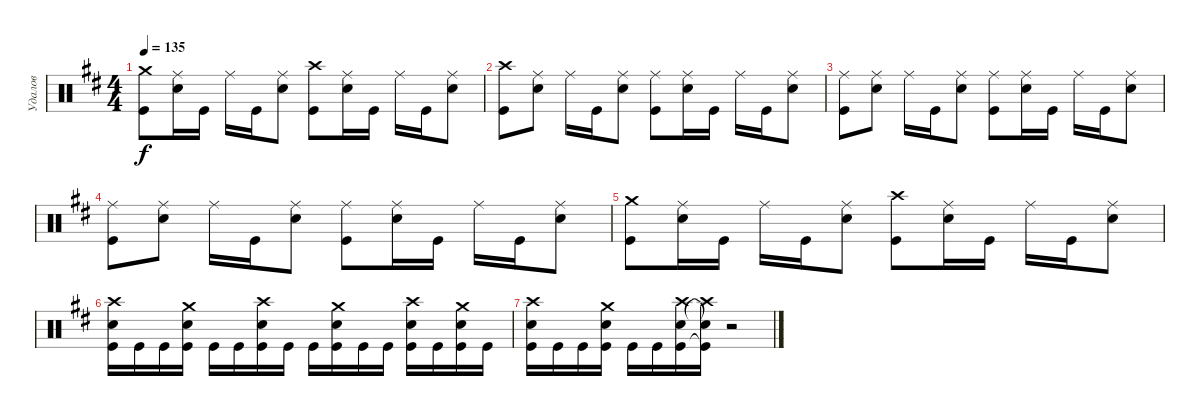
\track ("Удалов" "Удалов") {instrument percussion}
\staff {score}
\articulation defaults
\ts (4 4)
\tempo 135
\clef neutral
\ks d
("Crash medium (hit)" "Kick (hit)").8{dy f} ("Ride (middle)" "Electric Snare (hit)").16 "Kick (hit)".16 "Ride (middle)".16 "Kick (hit)".16 ("Electric Snare (hit)" "Ride (middle)").8 ("Crash high (hit)" "Kick (hit)").8 ("Ride (middle)" "Electric Snare (hit)").16 "Kick (hit)".16 "Ride (middle)".16 "Kick (hit)".16 ("Electric Snare (hit)" "Ride (middle)").8 |
("Kick (hit)" "Crash high (hit)").8 ("Electric Snare (hit)" "Ride (middle)").8 "Ride (middle)".16 "Kick (hit)".16 ("Electric Snare (hit)" "Ride (middle)").8 ("Ride (middle)" "Kick (hit)").8 ("Ride (middle)" "Electric Snare (hit)").16 "Kick (hit)".16 "Ride (middle)".16 "Kick (hit)".16 ("Electric Snare (hit)" "Ride (middle)").8 |
("Kick (hit)" "Ride (middle)").8 ("Electric Snare (hit)" "Ride (middle)").8 "Ride (middle)".16 "Kick (hit)".16 ("Electric Snare (hit)" "Ride (middle)").8 ("Ride (middle)" "Kick (hit)").8 ("Ride (middle)" "Electric Snare (hit)").16 "Kick (hit)".16 "Ride (middle)".16 "Kick (hit)".16 ("Electric Snare (hit)" "Ride (middle)").8 |
("Kick (hit)" "Ride (middle)").8 ("Electric Snare (hit)" "Ride (middle)").8 "Ride (middle)".16 "Kick (hit)".16 ("Electric Snare (hit)" "Ride (middle)").8 ("Ride (middle)" "Kick (hit)").8 ("Ride (middle)" "Electric Snare (hit)").16 "Kick (hit)".16 "Ride (middle)".16 "Kick (hit)".16 ("Electric Snare (hit)" "Ride (middle)").8 |
("Crash medium (hit)" "Kick (hit)").8 ("Ride (middle)" "Electric Snare (hit)").16 "Kick (hit)".16 "Ride (middle)".16 "Kick (hit)".16 ("Electric Snare (hit)" "Ride (middle)").8 ("Crash high (hit)" "Kick (hit)").8 ("Ride (middle)" "Electric Snare (hit)").16 "Kick (hit)".16 "Ride (middle)".16 "Kick (hit)".16 ("Electric Snare (hit)" "Ride (middle)").8 |
("Kick (hit)" "Electric Snare (hit)" "Crash high (hit)").16 "Kick (hit)".16 "Kick (hit)".16 ("Kick (hit)" "Electric Snare (hit)" "Crash medium (hit)").16 "Kick (hit)".16 "Kick (hit)".16 ("Kick (hit)" "Electric Snare (hit)" "Crash high (hit)").16 "Kick (hit)".16 "Kick (hit)".16 ("Kick (hit)" "Electric Snare (hit)" "Crash medium (hit)").16 "Kick (hit)".16 "Kick (hit)".16 ("Kick (hit)" "Electric Snare (hit)" "Crash high (hit)").16 "Kick (hit)".16 ("Kick (hit)" "Electric Snare (hit)" "Crash medium (hit)").16 "Kick (hit)".16 |
("Kick (hit)" "Electric Snare (hit)" "Crash high (hit)").16 "Kick (hit)".16 "Kick (hit)".16 ("Kick (hit)" "Electric Snare (hit)" "Crash medium (hit)").16 "Kick (hit)".16 "Kick (hit)".16 ("Kick (hit)" "Crash high (hit)" "Electric Snare (hit)").16 ("Kick (hit)"{t} "Electric Snare (hit)"{t} "Crash high (hit)"{t}).16 r.2
